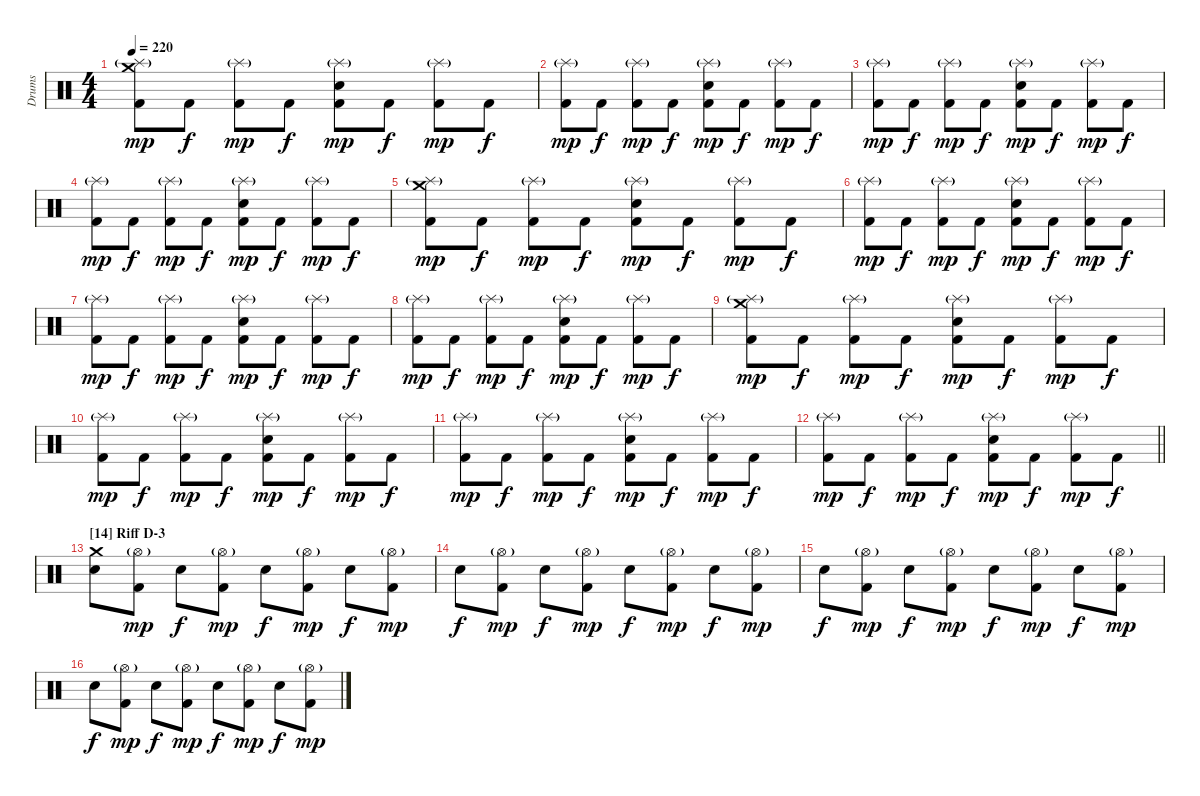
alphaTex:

\track ("Drums" "Drums") {instrument percussion}
\staff {score}
\articulation defaults
\ts (4 4)
\tempo 220
\clef neutral
\ks c
("Crash medium (hit)" "Splash (hit)"{g} "Kick (hit) 2").8{dy mp} "Kick (hit) 2".8{dy f} ("Splash (hit)"{g} "Kick (hit) 2").8{dy mp} "Kick (hit) 2".8{dy f} ("Splash (hit)"{g} "Electric Snare (hit)" "Kick (hit) 2").8{dy mp} "Kick (hit) 2".8{dy f} ("Splash (hit)"{g} "Kick (hit) 2").8{dy mp} "Kick (hit) 2".8{dy f} |
("Splash (hit)"{g} "Kick (hit) 2").8{dy mp} "Kick (hit) 2".8{dy f} ("Splash (hit)"{g} "Kick (hit) 2").8{dy mp} "Kick (hit) 2".8{dy f} ("Splash (hit)"{g} "Electric Snare (hit)" "Kick (hit) 2").8{dy mp} "Kick (hit) 2".8{dy f} ("Splash (hit)"{g} "Kick (hit) 2").8{dy mp} "Kick (hit) 2".8{dy f} |
("Splash (hit)"{g} "Kick (hit) 2").8{dy mp} "Kick (hit) 2".8{dy f} ("Splash (hit)"{g} "Kick (hit) 2").8{dy mp} "Kick (hit) 2".8{dy f} ("Splash (hit)"{g} "Electric Snare (hit)" "Kick (hit) 2").8{dy mp} "Kick (hit) 2".8{dy f} ("Splash (hit)"{g} "Kick (hit) 2").8{dy mp} "Kick (hit) 2".8{dy f} |
("Splash (hit)"{g} "Kick (hit) 2").8{dy mp} "Kick (hit) 2".8{dy f} ("Splash (hit)"{g} "Kick (hit) 2").8{dy mp} "Kick (hit) 2".8{dy f} ("Splash (hit)"{g} "Electric Snare (hit)" "Kick (hit) 2").8{dy mp} "Kick (hit) 2".8{dy f} ("Splash (hit)"{g} "Kick (hit) 2").8{dy mp} "Kick (hit) 2".8{dy f} |
("Crash medium (hit)" "Splash (hit)"{g} "Kick (hit) 2").8{dy mp} "Kick (hit) 2".8{dy f} ("Splash (hit)"{g} "Kick (hit) 2").8{dy mp} "Kick (hit) 2".8{dy f} ("Splash (hit)"{g} "Electric Snare (hit)" "Kick (hit) 2").8{dy mp} "Kick (hit) 2".8{dy f} ("Splash (hit)"{g} "Kick (hit) 2").8{dy mp} "Kick (hit) 2".8{dy f} |
("Splash (hit)"{g} "Kick (hit) 2").8{dy mp} "Kick (hit) 2".8{dy f} ("Splash (hit)"{g} "Kick (hit) 2").8{dy mp} "Kick (hit) 2".8{dy f} ("Splash (hit)"{g} "Electric Snare (hit)" "Kick (hit) 2").8{dy mp} "Kick (hit) 2".8{dy f} ("Splash (hit)"{g} "Kick (hit) 2").8{dy mp} "Kick (hit) 2".8{dy f} |
("Splash (hit)"{g} "Kick (hit) 2").8{dy mp} "Kick (hit) 2".8{dy f} ("Splash (hit)"{g} "Kick (hit) 2").8{dy mp} "Kick (hit) 2".8{dy f} ("Splash (hit)"{g} "Electric Snare (hit)" "Kick (hit) 2").8{dy mp} "Kick (hit) 2".8{dy f} ("Splash (hit)"{g} "Kick (hit) 2").8{dy mp} "Kick (hit) 2".8{dy f} |
("Splash (hit)"{g} "Kick (hit) 2").8{dy mp} "Kick (hit) 2".8{dy f} ("Splash (hit)"{g} "Kick (hit) 2").8{dy mp} "Kick (hit) 2".8{dy f} ("Splash (hit)"{g} "Electric Snare (hit)" "Kick (hit) 2").8{dy mp} "Kick (hit) 2".8{dy f} ("Splash (hit)"{g} "Kick (hit) 2").8{dy mp} "Kick (hit) 2".8{dy f} |
("Crash medium (hit)" "Splash (hit)"{g} "Kick (hit) 2").8{dy mp} "Kick (hit) 2".8{dy f} ("Splash (hit)"{g} "Kick (hit) 2").8{dy mp} "Kick (hit) 2".8{dy f} ("Splash (hit)"{g} "Electric Snare (hit)" "Kick (hit) 2").8{dy mp} "Kick (hit) 2".8{dy f} ("Splash (hit)"{g} "Kick (hit) 2").8{dy mp} "Kick (hit) 2".8{dy f} |
("Splash (hit)"{g} "Kick (hit) 2").8{dy mp} "Kick (hit) 2".8{dy f} ("Splash (hit)"{g} "Kick (hit) 2").8{dy mp} "Kick (hit) 2".8{dy f} ("Splash (hit)"{g} "Electric Snare (hit)" "Kick (hit) 2").8{dy mp} "Kick (hit) 2".8{dy f} ("Splash (hit)"{g} "Kick (hit) 2").8{dy mp} "Kick (hit) 2".8{dy f} |
("Splash (hit)"{g} "Kick (hit) 2").8{dy mp} "Kick (hit) 2".8{dy f} ("Splash (hit)"{g} "Kick (hit) 2").8{dy mp} "Kick (hit) 2".8{dy f} ("Splash (hit)"{g} "Electric Snare (hit)" "Kick (hit) 2").8{dy mp} "Kick (hit) 2".8{dy f} ("Splash (hit)"{g} "Kick (hit) 2").8{dy mp} "Kick (hit) 2".8{dy f} |
\barLineRight lightlight
("Splash (hit)"{g} "Kick (hit) 2").8{dy mp} "Kick (hit) 2".8{dy f} ("Splash (hit)"{g} "Kick (hit) 2").8{dy mp} "Kick (hit) 2".8{dy f} ("Splash (hit)"{g} "Electric Snare (hit)" "Kick (hit) 2").8{dy mp} "Kick (hit) 2".8{dy f} ("Splash (hit)"{g} "Kick (hit) 2").8{dy mp} "Kick (hit) 2".8{dy f} |
\section ("" "[14] Riff D-3")
("Crash medium (hit)" "Snare (hit) 2").8 ("Hi-Hat (open)"{g} "Kick (hit) 2").8{dy mp} "Snare (hit) 2".8{dy f} ("Hi-Hat (open)"{g} "Kick (hit) 2").8{dy mp} "Snare (hit) 2".8{dy f} ("Hi-Hat (open)"{g} "Kick (hit) 2").8{dy mp} "Snare (hit) 2".8{dy f} ("Hi-Hat (open)"{g} "Kick (hit) 2").8{dy mp} |
"Snare (hit) 2".8{dy f} ("Hi-Hat (open)"{g} "Kick (hit) 2").8{dy mp} "Snare (hit) 2".8{dy f} ("Hi-Hat (open)"{g} "Kick (hit) 2").8{dy mp} "Snare (hit) 2".8{dy f} ("Hi-Hat (open)"{g} "Kick (hit) 2").8{dy mp} "Snare (hit) 2".8{dy f} ("Hi-Hat (open)"{g} "Kick (hit) 2").8{dy mp} |
"Snare (hit) 2".8{dy f} ("Hi-Hat (open)"{g} "Kick (hit) 2").8{dy mp} "Snare (hit) 2".8{dy f} ("Hi-Hat (open)"{g} "Kick (hit) 2").8{dy mp} "Snare (hit) 2".8{dy f} ("Hi-Hat (open)"{g} "Kick (hit) 2").8{dy mp} "Snare (hit) 2".8{dy f} ("Hi-Hat (open)"{g} "Kick (hit) 2").8{dy mp} |
"Snare (hit) 2".8{dy f} ("Hi-Hat (open)"{g} "Kick (hit) 2").8{dy mp} "Snare (hit) 2".8{dy f} ("Hi-Hat (open)"{g} "Kick (hit) 2").8{dy mp} "Snare (hit) 2".8{dy f} ("Hi-Hat (open)"{g} "Kick (hit) 2").8{dy mp} "Snare (hit) 2".8{dy f} ("Hi-Hat (open)"{g} "Kick (hit) 2").8{dy mp}
